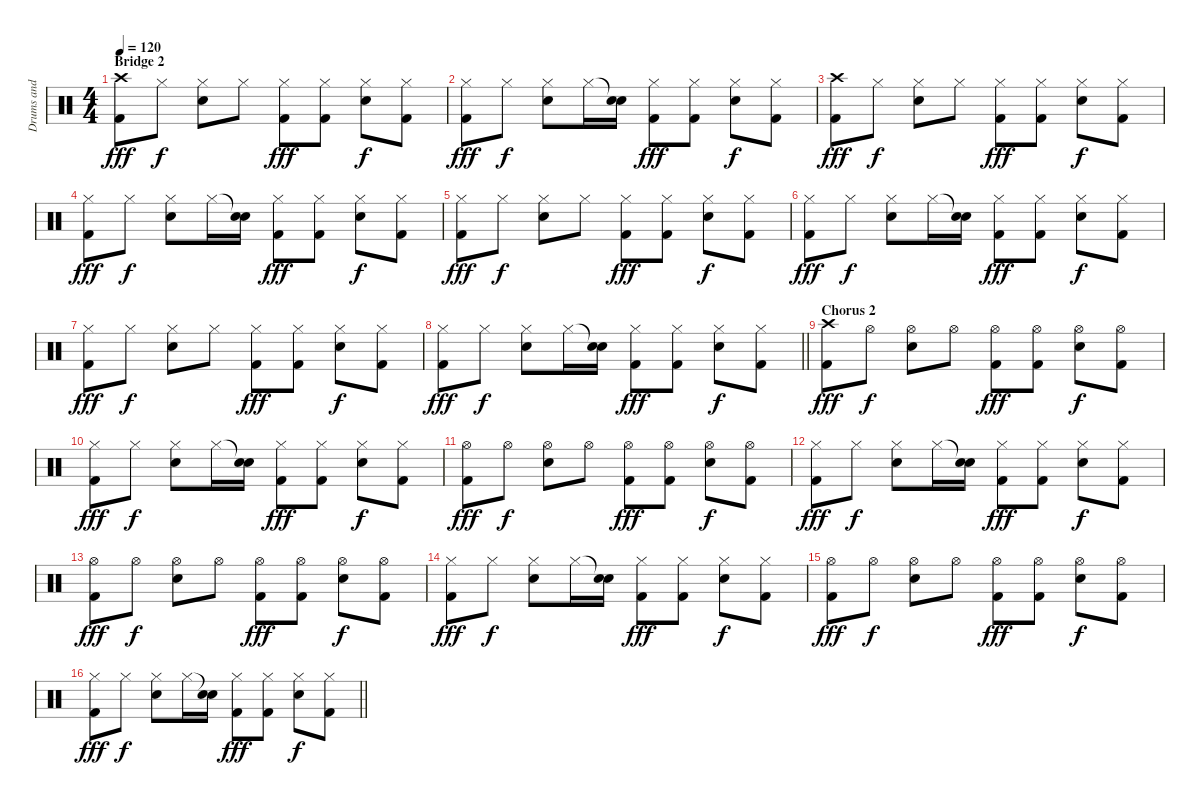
\track ("Drums and Percussion" "Drums and ") {instrument percussion}
\staff {score}
\articulation defaults
\ts (4 4)
\section ("" "Bridge 2")
\tempo 120
\clef neutral
\ks c
("Crash high (hit)" "Kick (hit) 2").8{dy fff} "Hi-Hat (closed)".8{dy f} ("Hi-Hat (closed)" "Snare (hit) 2").8 "Hi-Hat (closed)".8 ("Hi-Hat (closed)" "Kick (hit) 2").8{dy fff} ("Hi-Hat (closed)" "Kick (hit) 2").8 ("Hi-Hat (closed)" "Snare (hit) 2").8{dy f} ("Hi-Hat (closed)" "Kick (hit) 2").8 |
("Hi-Hat (closed)" "Kick (hit) 2").8{dy fff} "Hi-Hat (closed)".8{dy f} ("Hi-Hat (closed)" "Snare (hit) 2").8 "Hi-Hat (closed)".16 ("Snare (hit)"{t} "Snare (hit) 2").16 ("Hi-Hat (closed)" "Kick (hit) 2").8{dy fff} ("Hi-Hat (closed)" "Kick (hit) 2").8 ("Hi-Hat (closed)" "Snare (hit) 2").8{dy f} ("Hi-Hat (closed)" "Kick (hit) 2").8 |
("Crash high (hit)" "Kick (hit) 2").8{dy fff} "Hi-Hat (closed)".8{dy f} ("Hi-Hat (closed)" "Snare (hit) 2").8 "Hi-Hat (closed)".8 ("Hi-Hat (closed)" "Kick (hit) 2").8{dy fff} ("Hi-Hat (closed)" "Kick (hit) 2").8 ("Hi-Hat (closed)" "Snare (hit) 2").8{dy f} ("Hi-Hat (closed)" "Kick (hit) 2").8 |
("Hi-Hat (closed)" "Kick (hit) 2").8{dy fff} "Hi-Hat (closed)".8{dy f} ("Hi-Hat (closed)" "Snare (hit) 2").8 "Hi-Hat (closed)".16 ("Snare (hit)"{t} "Snare (hit) 2").16 ("Hi-Hat (closed)" "Kick (hit) 2").8{dy fff} ("Hi-Hat (closed)" "Kick (hit) 2").8 ("Hi-Hat (closed)" "Snare (hit) 2").8{dy f} ("Hi-Hat (closed)" "Kick (hit) 2").8 |
("Hi-Hat (closed)" "Kick (hit) 2").8{dy fff} "Hi-Hat (closed)".8{dy f} ("Hi-Hat (closed)" "Snare (hit) 2").8 "Hi-Hat (closed)".8 ("Hi-Hat (closed)" "Kick (hit) 2").8{dy fff} ("Hi-Hat (closed)" "Kick (hit) 2").8 ("Hi-Hat (closed)" "Snare (hit) 2").8{dy f} ("Hi-Hat (closed)" "Kick (hit) 2").8 |
("Hi-Hat (closed)" "Kick (hit) 2").8{dy fff} "Hi-Hat (closed)".8{dy f} ("Hi-Hat (closed)" "Snare (hit) 2").8 "Hi-Hat (closed)".16 ("Snare (hit)"{t} "Snare (hit) 2").16 ("Hi-Hat (closed)" "Kick (hit) 2").8{dy fff} ("Hi-Hat (closed)" "Kick (hit) 2").8 ("Hi-Hat (closed)" "Snare (hit) 2").8{dy f} ("Hi-Hat (closed)" "Kick (hit) 2").8 |
("Hi-Hat (closed)" "Kick (hit) 2").8{dy fff} "Hi-Hat (closed)".8{dy f} ("Hi-Hat (closed)" "Snare (hit) 2").8 "Hi-Hat (closed)".8 ("Hi-Hat (closed)" "Kick (hit) 2").8{dy fff} ("Hi-Hat (closed)" "Kick (hit) 2").8 ("Hi-Hat (closed)" "Snare (hit) 2").8{dy f} ("Hi-Hat (closed)" "Kick (hit) 2").8 |
\barLineRight lightlight
("Hi-Hat (closed)" "Kick (hit) 2").8{dy fff} "Hi-Hat (closed)".8{dy f} ("Hi-Hat (closed)" "Snare (hit) 2").8 "Hi-Hat (closed)".16 ("Snare (hit)"{t} "Snare (hit) 2").16 ("Hi-Hat (closed)" "Kick (hit) 2").8{dy fff} ("Hi-Hat (closed)" "Kick (hit) 2").8 ("Hi-Hat (closed)" "Snare (hit) 2").8{dy f} ("Hi-Hat (closed)" "Kick (hit) 2").8 |
\section ("" "Chorus 2")
("Crash high (hit)" "Kick (hit) 2").8{dy fff} "Hi-Hat (open)".8{dy f} ("Hi-Hat (open)" "Snare (hit) 2").8 "Hi-Hat (open)".8 ("Hi-Hat (open)" "Kick (hit) 2").8{dy fff} ("Hi-Hat (open)" "Kick (hit) 2").8 ("Hi-Hat (open)" "Snare (hit) 2").8{dy f} ("Hi-Hat (open)" "Kick (hit) 2").8 |
("Hi-Hat (closed)" "Kick (hit) 2").8{dy fff} "Hi-Hat (closed)".8{dy f} ("Hi-Hat (closed)" "Snare (hit) 2").8 "Hi-Hat (closed)".16 ("Snare (hit)"{t} "Snare (hit) 2").16 ("Hi-Hat (closed)" "Kick (hit) 2").8{dy fff} ("Hi-Hat (closed)" "Kick (hit) 2").8 ("Hi-Hat (closed)" "Snare (hit) 2").8{dy f} ("Hi-Hat (closed)" "Kick (hit) 2").8 |
("Hi-Hat (open)" "Kick (hit) 2").8{dy fff} "Hi-Hat (open)".8{dy f} ("Hi-Hat (open)" "Snare (hit) 2").8 "Hi-Hat (open)".8 ("Hi-Hat (open)" "Kick (hit) 2").8{dy fff} ("Hi-Hat (open)" "Kick (hit) 2").8 ("Hi-Hat (open)" "Snare (hit) 2").8{dy f} ("Hi-Hat (open)" "Kick (hit) 2").8 |
("Hi-Hat (closed)" "Kick (hit) 2").8{dy fff} "Hi-Hat (closed)".8{dy f} ("Hi-Hat (closed)" "Snare (hit) 2").8 "Hi-Hat (closed)".16 ("Snare (hit)"{t} "Snare (hit) 2").16 ("Hi-Hat (closed)" "Kick (hit) 2").8{dy fff} ("Hi-Hat (closed)" "Kick (hit) 2").8 ("Hi-Hat (closed)" "Snare (hit) 2").8{dy f} ("Hi-Hat (closed)" "Kick (hit) 2").8 |
("Hi-Hat (open)" "Kick (hit) 2").8{dy fff} "Hi-Hat (open)".8{dy f} ("Hi-Hat (open)" "Snare (hit) 2").8 "Hi-Hat (open)".8 ("Hi-Hat (open)" "Kick (hit) 2").8{dy fff} ("Hi-Hat (open)" "Kick (hit) 2").8 ("Hi-Hat (open)" "Snare (hit) 2").8{dy f} ("Hi-Hat (open)" "Kick (hit) 2").8 |
("Hi-Hat (closed)" "Kick (hit) 2").8{dy fff} "Hi-Hat (closed)".8{dy f} ("Hi-Hat (closed)" "Snare (hit) 2").8 "Hi-Hat (closed)".16 ("Snare (hit)"{t} "Snare (hit) 2").16 ("Hi-Hat (closed)" "Kick (hit) 2").8{dy fff} ("Hi-Hat (closed)" "Kick (hit) 2").8 ("Hi-Hat (closed)" "Snare (hit) 2").8{dy f} ("Hi-Hat (closed)" "Kick (hit) 2").8 |
("Hi-Hat (open)" "Kick (hit) 2").8{dy fff} "Hi-Hat (open)".8{dy f} ("Hi-Hat (open)" "Snare (hit) 2").8 "Hi-Hat (open)".8 ("Hi-Hat (open)" "Kick (hit) 2").8{dy fff} ("Hi-Hat (open)" "Kick (hit) 2").8 ("Hi-Hat (open)" "Snare (hit) 2").8{dy f} ("Hi-Hat (open)" "Kick (hit) 2").8 |
\barLineRight lightlight
("Hi-Hat (closed)" "Kick (hit) 2").8{dy fff} "Hi-Hat (closed)".8{dy f} ("Hi-Hat (closed)" "Snare (hit) 2").8 "Hi-Hat (closed)".16 ("Snare (hit)"{t} "Snare (hit) 2").16 ("Hi-Hat (closed)" "Kick (hit) 2").8{dy fff} ("Hi-Hat (closed)" "Kick (hit) 2").8 ("Hi-Hat (closed)" "Snare (hit) 2").8{dy f} ("Hi-Hat (closed)" "Kick (hit) 2").8
